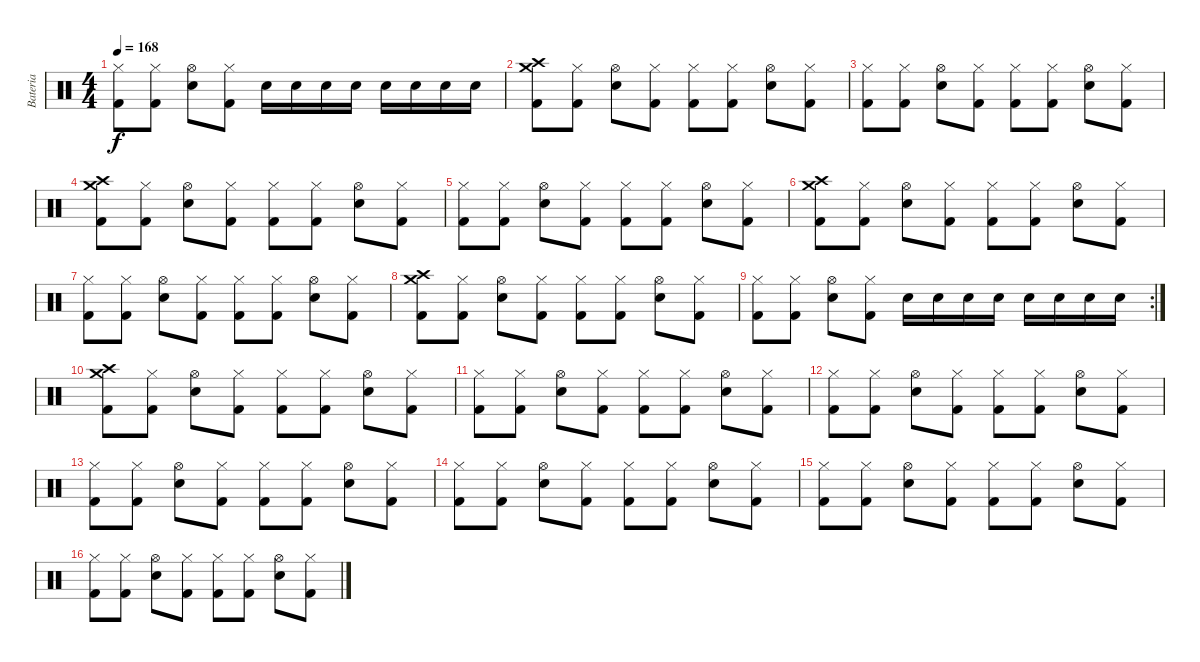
\track ("Bateria" "Bateria") {instrument percussion}
\staff {score}
\articulation defaults
\ts (4 4)
\tempo 168
\clef neutral
\ks c
("Hi-Hat (closed)" "Kick (hit) 2").8{dy f} ("Hi-Hat (closed)" "Kick (hit) 2").8 ("Hi-Hat (open)" "Snare (hit) 2").8 ("Hi-Hat (closed)" "Kick (hit) 2").8 "Snare (hit) 2".16 "Snare (hit) 2".16 "Snare (hit) 2".16 "Snare (hit) 2".16 "Snare (hit) 2".16 "Snare (hit) 2".16 "Snare (hit) 2".16 "Snare (hit) 2".16 |
("Crash medium (hit)" "Crash high (hit)" "Kick (hit) 2").8 ("Hi-Hat (closed)" "Kick (hit) 2").8 ("Hi-Hat (open)" "Snare (hit) 2").8 ("Hi-Hat (closed)" "Kick (hit) 2").8 ("Hi-Hat (closed)" "Kick (hit) 2").8 ("Hi-Hat (closed)" "Kick (hit) 2").8 ("Hi-Hat (open)" "Snare (hit) 2").8 ("Hi-Hat (closed)" "Kick (hit) 2").8 |
("Hi-Hat (closed)" "Kick (hit) 2").8 ("Hi-Hat (closed)" "Kick (hit) 2").8 ("Hi-Hat (open)" "Snare (hit) 2").8 ("Hi-Hat (closed)" "Kick (hit) 2").8 ("Hi-Hat (closed)" "Kick (hit) 2").8 ("Hi-Hat (closed)" "Kick (hit) 2").8 ("Hi-Hat (open)" "Snare (hit) 2").8 ("Hi-Hat (closed)" "Kick (hit) 2").8 |
("Crash high (hit)" "Crash medium (hit)" "Kick (hit) 2").8 ("Hi-Hat (closed)" "Kick (hit) 2").8 ("Hi-Hat (open)" "Snare (hit) 2").8 ("Hi-Hat (closed)" "Kick (hit) 2").8 ("Hi-Hat (closed)" "Kick (hit) 2").8 ("Hi-Hat (closed)" "Kick (hit) 2").8 ("Hi-Hat (open)" "Snare (hit) 2").8 ("Hi-Hat (closed)" "Kick (hit) 2").8 |
("Hi-Hat (closed)" "Kick (hit) 2").8 ("Hi-Hat (closed)" "Kick (hit) 2").8 ("Hi-Hat (open)" "Snare (hit) 2").8 ("Hi-Hat (closed)" "Kick (hit) 2").8 ("Hi-Hat (closed)" "Kick (hit) 2").8 ("Hi-Hat (closed)" "Kick (hit) 2").8 ("Hi-Hat (open)" "Snare (hit) 2").8 ("Hi-Hat (closed)" "Kick (hit) 2").8 |
("Crash high (hit)" "Crash medium (hit)" "Kick (hit) 2").8 ("Hi-Hat (closed)" "Kick (hit) 2").8 ("Hi-Hat (open)" "Snare (hit) 2").8 ("Hi-Hat (closed)" "Kick (hit) 2").8 ("Hi-Hat (closed)" "Kick (hit) 2").8 ("Hi-Hat (closed)" "Kick (hit) 2").8 ("Hi-Hat (open)" "Snare (hit) 2").8 ("Hi-Hat (closed)" "Kick (hit) 2").8 |
("Hi-Hat (closed)" "Kick (hit) 2").8 ("Hi-Hat (closed)" "Kick (hit) 2").8 ("Hi-Hat (open)" "Snare (hit) 2").8 ("Hi-Hat (closed)" "Kick (hit) 2").8 ("Hi-Hat (closed)" "Kick (hit) 2").8 ("Hi-Hat (closed)" "Kick (hit) 2").8 ("Hi-Hat (open)" "Snare (hit) 2").8 ("Hi-Hat (closed)" "Kick (hit) 2").8 |
("Crash medium (hit)" "Crash high (hit)" "Kick (hit) 2").8 ("Hi-Hat (closed)" "Kick (hit) 2").8 ("Hi-Hat (open)" "Snare (hit) 2").8 ("Hi-Hat (closed)" "Kick (hit) 2").8 ("Hi-Hat (closed)" "Kick (hit) 2").8 ("Hi-Hat (closed)" "Kick (hit) 2").8 ("Hi-Hat (open)" "Snare (hit) 2").8 ("Hi-Hat (closed)" "Kick (hit) 2").8 |
\rc 2
("Hi-Hat (closed)" "Kick (hit) 2").8 ("Hi-Hat (closed)" "Kick (hit) 2").8 ("Hi-Hat (open)" "Snare (hit) 2").8 ("Hi-Hat (closed)" "Kick (hit) 2").8 "Snare (hit) 2".16 "Snare (hit) 2".16 "Snare (hit) 2".16 "Snare (hit) 2".16 "Snare (hit) 2".16 "Snare (hit) 2".16 "Snare (hit) 2".16 "Snare (hit) 2".16 |
("Crash medium (hit)" "Crash high (hit)" "Kick (hit) 2").8 ("Hi-Hat (closed)" "Kick (hit) 2").8 ("Hi-Hat (open)" "Snare (hit) 2").8 ("Hi-Hat (closed)" "Kick (hit) 2").8 ("Hi-Hat (closed)" "Kick (hit) 2").8 ("Hi-Hat (closed)" "Kick (hit) 2").8 ("Hi-Hat (open)" "Snare (hit) 2").8 ("Hi-Hat (closed)" "Kick (hit) 2").8 |
("Hi-Hat (closed)" "Kick (hit) 2").8 ("Hi-Hat (closed)" "Kick (hit) 2").8 ("Hi-Hat (open)" "Snare (hit) 2").8 ("Hi-Hat (closed)" "Kick (hit) 2").8 ("Hi-Hat (closed)" "Kick (hit) 2").8 ("Hi-Hat (closed)" "Kick (hit) 2").8 ("Hi-Hat (open)" "Snare (hit) 2").8 ("Hi-Hat (closed)" "Kick (hit) 2").8 |
("Hi-Hat (closed)" "Kick (hit) 2").8 ("Hi-Hat (closed)" "Kick (hit) 2").8 ("Hi-Hat (open)" "Snare (hit) 2").8 ("Hi-Hat (closed)" "Kick (hit) 2").8 ("Hi-Hat (closed)" "Kick (hit) 2").8 ("Hi-Hat (closed)" "Kick (hit) 2").8 ("Hi-Hat (open)" "Snare (hit) 2").8 ("Hi-Hat (closed)" "Kick (hit) 2").8 |
("Hi-Hat (closed)" "Kick (hit) 2").8 ("Hi-Hat (closed)" "Kick (hit) 2").8 ("Hi-Hat (open)" "Snare (hit) 2").8 ("Hi-Hat (closed)" "Kick (hit) 2").8 ("Hi-Hat (closed)" "Kick (hit) 2").8 ("Hi-Hat (closed)" "Kick (hit) 2").8 ("Hi-Hat (open)" "Snare (hit) 2").8 ("Hi-Hat (closed)" "Kick (hit) 2").8 |
("Hi-Hat (closed)" "Kick (hit) 2").8 ("Hi-Hat (closed)" "Kick (hit) 2").8 ("Hi-Hat (open)" "Snare (hit) 2").8 ("Hi-Hat (closed)" "Kick (hit) 2").8 ("Hi-Hat (closed)" "Kick (hit) 2").8 ("Hi-Hat (closed)" "Kick (hit) 2").8 ("Hi-Hat (open)" "Snare (hit) 2").8 ("Hi-Hat (closed)" "Kick (hit) 2").8 |
("Hi-Hat (closed)" "Kick (hit) 2").8 ("Hi-Hat (closed)" "Kick (hit) 2").8 ("Hi-Hat (open)" "Snare (hit) 2").8 ("Hi-Hat (closed)" "Kick (hit) 2").8 ("Hi-Hat (closed)" "Kick (hit) 2").8 ("Hi-Hat (closed)" "Kick (hit) 2").8 ("Hi-Hat (open)" "Snare (hit) 2").8 ("Hi-Hat (closed)" "Kick (hit) 2").8 |
("Hi-Hat (closed)" "Kick (hit) 2").8 ("Hi-Hat (closed)" "Kick (hit) 2").8 ("Hi-Hat (open)" "Snare (hit) 2").8 ("Hi-Hat (closed)" "Kick (hit) 2").8 ("Hi-Hat (closed)" "Kick (hit) 2").8 ("Hi-Hat (closed)" "Kick (hit) 2").8 ("Hi-Hat (open)" "Snare (hit) 2").8 ("Hi-Hat (closed)" "Kick (hit) 2").8
